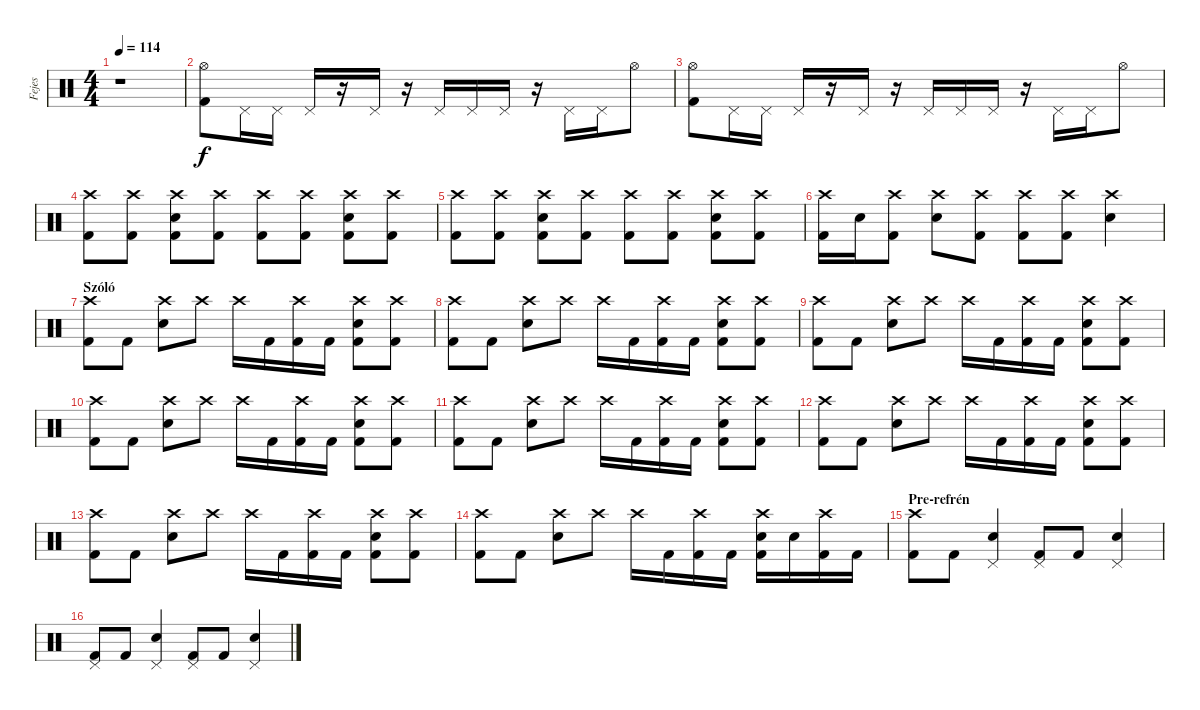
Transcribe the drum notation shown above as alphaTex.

\track ("Fejes" "Fejes") {instrument percussion}
\staff {score}
\articulation defaults
\ts (4 4)
\tempo 114
\clef neutral
\ks c
r.1{dy mp} |
("Hi-Hat (open)" "Kick (hit) 2").8{dy f} "Pedal Hi-Hat (hit)".16 "Pedal Hi-Hat (hit)".16 "Pedal Hi-Hat (hit)".16 r.16 "Pedal Hi-Hat (hit)".16 r.16 "Pedal Hi-Hat (hit)".16 "Pedal Hi-Hat (hit)".16 "Pedal Hi-Hat (hit)".16 r.16 "Pedal Hi-Hat (hit)".16 "Pedal Hi-Hat (hit)".16 "Hi-Hat (open)".8 |
("Hi-Hat (open)" "Kick (hit) 2").8 "Pedal Hi-Hat (hit)".16 "Pedal Hi-Hat (hit)".16 "Pedal Hi-Hat (hit)".16 r.16 "Pedal Hi-Hat (hit)".16 r.16 "Pedal Hi-Hat (hit)".16 "Pedal Hi-Hat (hit)".16 "Pedal Hi-Hat (hit)".16 r.16 "Pedal Hi-Hat (hit)".16 "Pedal Hi-Hat (hit)".16 "Hi-Hat (open)".8 |
("Crash high (hit)" "Kick (hit) 2").8 ("Crash high (hit)" "Kick (hit) 2").8 ("Crash high (hit)" "Electric Snare (hit)" "Kick (hit) 2").8 ("Crash high (hit)" "Kick (hit) 2").8 ("Crash high (hit)" "Kick (hit) 2").8 ("Crash high (hit)" "Kick (hit) 2").8 ("Crash high (hit)" "Electric Snare (hit)" "Kick (hit) 2").8 ("Crash high (hit)" "Kick (hit) 2").8 |
("Crash high (hit)" "Kick (hit) 2").8 ("Crash high (hit)" "Kick (hit) 2").8 ("Crash high (hit)" "Electric Snare (hit)" "Kick (hit) 2").8 ("Crash high (hit)" "Kick (hit) 2").8 ("Crash high (hit)" "Kick (hit) 2").8 ("Crash high (hit)" "Kick (hit) 2").8 ("Crash high (hit)" "Electric Snare (hit)" "Kick (hit) 2").8 ("Crash high (hit)" "Kick (hit) 2").8 |
("Crash high (hit)" "Kick (hit) 2").16 "Electric Snare (hit)".16 ("Crash high (hit)" "Kick (hit) 2").8 ("Crash high (hit)" "Electric Snare (hit)").8 ("Crash high (hit)" "Kick (hit) 2").8 ("Crash high (hit)" "Kick (hit) 2").8 ("Crash high (hit)" "Kick (hit) 2").8 ("Crash high (hit)" "Electric Snare (hit)").4 |
\section ("" "Szóló")
("Crash high (hit)" "Kick (hit) 2").8 "Kick (hit) 2".8 ("Crash high (hit)" "Electric Snare (hit)").8 "Crash high (hit)".8 "Crash high (hit)".16 "Kick (hit) 2".16 ("Crash high (hit)" "Kick (hit) 2").16 "Kick (hit) 2".16 ("Crash high (hit)" "Electric Snare (hit)" "Kick (hit) 2").8 ("Crash high (hit)" "Kick (hit) 2").8 |
("Crash high (hit)" "Kick (hit) 2").8 "Kick (hit) 2".8 ("Crash high (hit)" "Electric Snare (hit)").8 "Crash high (hit)".8 "Crash high (hit)".16 "Kick (hit) 2".16 ("Crash high (hit)" "Kick (hit) 2").16 "Kick (hit) 2".16 ("Crash high (hit)" "Electric Snare (hit)" "Kick (hit) 2").8 ("Crash high (hit)" "Kick (hit) 2").8 |
("Crash high (hit)" "Kick (hit) 2").8 "Kick (hit) 2".8 ("Crash high (hit)" "Electric Snare (hit)").8 "Crash high (hit)".8 "Crash high (hit)".16 "Kick (hit) 2".16 ("Crash high (hit)" "Kick (hit) 2").16 "Kick (hit) 2".16 ("Crash high (hit)" "Electric Snare (hit)" "Kick (hit) 2").8 ("Crash high (hit)" "Kick (hit) 2").8 |
("Crash high (hit)" "Kick (hit) 2").8 "Kick (hit) 2".8 ("Crash high (hit)" "Electric Snare (hit)").8 "Crash high (hit)".8 "Crash high (hit)".16 "Kick (hit) 2".16 ("Crash high (hit)" "Kick (hit) 2").16 "Kick (hit) 2".16 ("Crash high (hit)" "Electric Snare (hit)" "Kick (hit) 2").8 ("Crash high (hit)" "Kick (hit) 2").8 |
("Crash high (hit)" "Kick (hit) 2").8 "Kick (hit) 2".8 ("Crash high (hit)" "Electric Snare (hit)").8 "Crash high (hit)".8 "Crash high (hit)".16 "Kick (hit) 2".16 ("Crash high (hit)" "Kick (hit) 2").16 "Kick (hit) 2".16 ("Crash high (hit)" "Electric Snare (hit)" "Kick (hit) 2").8 ("Crash high (hit)" "Kick (hit) 2").8 |
("Crash high (hit)" "Kick (hit) 2").8 "Kick (hit) 2".8 ("Crash high (hit)" "Electric Snare (hit)").8 "Crash high (hit)".8 "Crash high (hit)".16 "Kick (hit) 2".16 ("Crash high (hit)" "Kick (hit) 2").16 "Kick (hit) 2".16 ("Crash high (hit)" "Electric Snare (hit)" "Kick (hit) 2").8 ("Crash high (hit)" "Kick (hit) 2").8 |
("Crash high (hit)" "Kick (hit) 2").8 "Kick (hit) 2".8 ("Crash high (hit)" "Electric Snare (hit)").8 "Crash high (hit)".8 "Crash high (hit)".16 "Kick (hit) 2".16 ("Crash high (hit)" "Kick (hit) 2").16 "Kick (hit) 2".16 ("Crash high (hit)" "Electric Snare (hit)" "Kick (hit) 2").8 ("Crash high (hit)" "Kick (hit) 2").8 |
("Crash high (hit)" "Kick (hit) 2").8 "Kick (hit) 2".8 ("Crash high (hit)" "Electric Snare (hit)").8 "Crash high (hit)".8 "Crash high (hit)".16 "Kick (hit) 2".16 ("Crash high (hit)" "Kick (hit) 2").16 "Kick (hit) 2".16 ("Crash high (hit)" "Electric Snare (hit)" "Kick (hit) 2").16 "Electric Snare (hit)".16 ("Crash high (hit)" "Kick (hit) 2").16 "Kick (hit) 2".16 |
\section ("" "Pre-refrén")
("Crash high (hit)" "Kick (hit) 2").8 "Kick (hit) 2".8 ("Pedal Hi-Hat (hit)" "Electric Snare (hit)").4 ("Pedal Hi-Hat (hit)" "Kick (hit) 2").8 "Kick (hit) 2".8 ("Pedal Hi-Hat (hit)" "Electric Snare (hit)").4 |
("Pedal Hi-Hat (hit)" "Kick (hit) 2").8 "Kick (hit) 2".8 ("Pedal Hi-Hat (hit)" "Electric Snare (hit)").4 ("Pedal Hi-Hat (hit)" "Kick (hit) 2").8 "Kick (hit) 2".8 ("Pedal Hi-Hat (hit)" "Electric Snare (hit)").4
